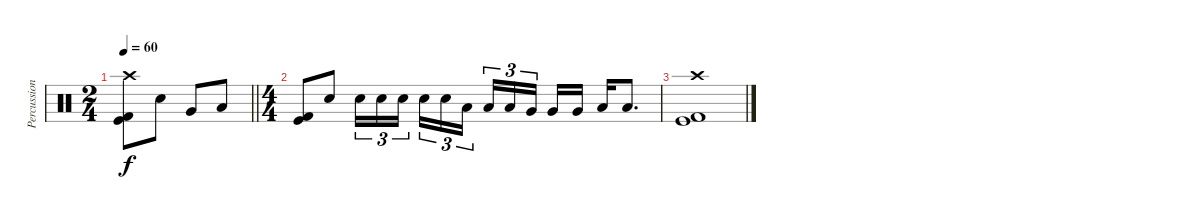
\track ("Percussion" "Percussion") {instrument percussion}
\staff {score}
\articulation defaults
\ts (2 4)
\tempo 60
\clef neutral
\barLineRight lightlight
\ks c
("Crash high (hit)" "Kick (hit)" "Kick (hit) 2").8{dy f} "Electric Snare (hit)".8 "Very Low Tom (hit)".8 "Low Floor Tom (hit)".8 |
\ts (4 4)
\section ("" "")
("Kick (hit)" "Kick (hit) 2").8 "Electric Snare (hit)".8 "Electric Snare (hit)".16{tu (3 2)} "Electric Snare (hit)".16{tu (3 2)} "Electric Snare (hit)".16{tu (3 2) beam splitsecondary} "Electric Snare (hit)".16{tu (3 2)} "Electric Snare (hit)".16{tu (3 2)} "Low Tom (hit)".16{tu (3 2)} "Low Tom (hit)".16{tu (3 2)} "Low Tom (hit)".16{tu (3 2)} "Very Low Tom (hit)".16{tu (3 2) beam splitsecondary} "Very Low Tom (hit)".16 "Very Low Tom (hit)".16 "Low Floor Tom (hit)".16 "Low Floor Tom (hit)".8{d} |
("Crash high (hit)" "Kick (hit)" "Kick (hit) 2").1
